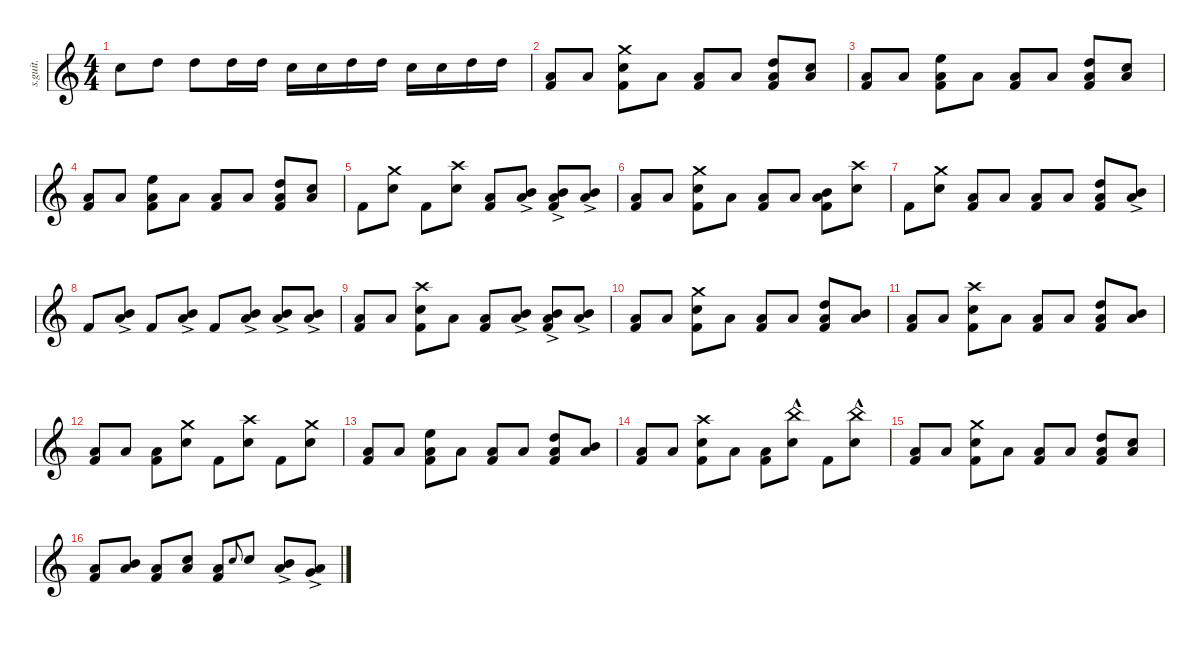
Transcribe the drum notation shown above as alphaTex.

\defaultSystemsLayout 4
\hideDynamics
\bracketExtendMode nobrackets
\track ("Lars Ulrich" "s.guit.") {instrument percussion}
\staff {score}
\articulation defaults
\ts (4 4)
\tempo (124 hide)
\clef g2
\ks c "Snare (hit) 2".8{lyrics (0 "") lyrics (1 "") lyrics (2 "") lyrics (3 "") lyrics (4 "") dy f} "High Tom (hit)".8{lyrics (0 "") lyrics (1 "") lyrics (2 "") lyrics (3 "") lyrics (4 "") dy ff} "High Tom (hit)".8{lyrics (0 "") lyrics (1 "") lyrics (2 "") lyrics (3 "") lyrics (4 "")} "High Tom (hit)".16{lyrics (0 "") lyrics (1 "") lyrics (2 "") lyrics (3 "") lyrics (4 "")} "High Tom (hit)".16{lyrics (0 "") lyrics (1 "") lyrics (2 "") lyrics (3 "") lyrics (4 "")} "Snare (hit) 2".16{lyrics (0 "") lyrics (1 "") lyrics (2 "") lyrics (3 "") lyrics (4 "")} "Snare (hit) 2".16{lyrics (0 "") lyrics (1 "") lyrics (2 "") lyrics (3 "") lyrics (4 "")} "High Tom (hit)".16{lyrics (0 "") lyrics (1 "") lyrics (2 "") lyrics (3 "") lyrics (4 "")} "High Tom (hit)".16{lyrics (0 "") lyrics (1 "") lyrics (2 "") lyrics (3 "") lyrics (4 "")} "Snare (hit) 2".16{lyrics (0 "") lyrics (1 "") lyrics (2 "") lyrics (3 "") lyrics (4 "")} "Snare (hit) 2".16{lyrics (0 "") lyrics (1 "") lyrics (2 "") lyrics (3 "") lyrics (4 "")} "High Tom (hit)".16{lyrics (0 "") lyrics (1 "") lyrics (2 "") lyrics (3 "") lyrics (4 "")} "High Tom (hit)".16{lyrics (0 "") lyrics (1 "") lyrics (2 "") lyrics (3 "") lyrics (4 "")}
|
("Low Floor Tom (hit)" "Kick (hit) 2").8{lyrics (0 "") lyrics (1 "") lyrics (2 "") lyrics (3 "") lyrics (4 "") dy f} "Low Floor Tom (hit)".8{lyrics (0 "") lyrics (1 "") lyrics (2 "") lyrics (3 "") lyrics (4 "") dy mf} ("Snare (hit) 2" "Crash medium (hit)" "Kick (hit) 2").8{lyrics (0 "") lyrics (1 "") lyrics (2 "") lyrics (3 "") lyrics (4 "") dy f} "Low Floor Tom (hit)".8{lyrics (0 "") lyrics (1 "") lyrics (2 "") lyrics (3 "") lyrics (4 "") dy mf} ("Low Floor Tom (hit)" "Kick (hit) 2").8{lyrics (0 "") lyrics (1 "") lyrics (2 "") lyrics (3 "") lyrics (4 "") dy f} "Low Floor Tom (hit)".8{lyrics (0 "") lyrics (1 "") lyrics (2 "") lyrics (3 "") lyrics (4 "") dy mf} ("Low Floor Tom (hit)" "Kick (hit) 2" "High Tom (hit)").8{lyrics (0 "") lyrics (1 "") lyrics (2 "") lyrics (3 "") lyrics (4 "") dy f} ("Snare (hit) 2" "Low Floor Tom (hit)").8{lyrics (0 "") lyrics (1 "") lyrics (2 "") lyrics (3 "") lyrics (4 "")} |
("Low Floor Tom (hit)" "Kick (hit) 2").8{lyrics (0 "") lyrics (1 "") lyrics (2 "") lyrics (3 "") lyrics (4 "")} "Low Floor Tom (hit)".8{lyrics (0 "") lyrics (1 "") lyrics (2 "") lyrics (3 "") lyrics (4 "") dy mf} ("Low Floor Tom (hit)" "Kick (hit) 2" "High Floor Tom (hit)").8{lyrics (0 "") lyrics (1 "") lyrics (2 "") lyrics (3 "") lyrics (4 "") dy f} "Low Floor Tom (hit)".8{lyrics (0 "") lyrics (1 "") lyrics (2 "") lyrics (3 "") lyrics (4 "") dy mf} ("Low Floor Tom (hit)" "Kick (hit) 2").8{lyrics (0 "") lyrics (1 "") lyrics (2 "") lyrics (3 "") lyrics (4 "") dy f} "Low Floor Tom (hit)".8{lyrics (0 "") lyrics (1 "") lyrics (2 "") lyrics (3 "") lyrics (4 "") dy mf} ("Low Floor Tom (hit)" "Kick (hit) 2" "High Tom (hit)").8{lyrics (0 "") lyrics (1 "") lyrics (2 "") lyrics (3 "") lyrics (4 "") dy f} ("Snare (hit) 2" "Low Floor Tom (hit)").8{lyrics (0 "") lyrics (1 "") lyrics (2 "") lyrics (3 "") lyrics (4 "")} |
("Low Floor Tom (hit)" "Kick (hit) 2").8{lyrics (0 "") lyrics (1 "") lyrics (2 "") lyrics (3 "") lyrics (4 "")} "Low Floor Tom (hit)".8{lyrics (0 "") lyrics (1 "") lyrics (2 "") lyrics (3 "") lyrics (4 "") dy mf} ("Low Floor Tom (hit)" "Kick (hit) 2" "High Floor Tom (hit)").8{lyrics (0 "") lyrics (1 "") lyrics (2 "") lyrics (3 "") lyrics (4 "") dy f} "Low Floor Tom (hit)".8{lyrics (0 "") lyrics (1 "") lyrics (2 "") lyrics (3 "") lyrics (4 "") dy mf} ("Low Floor Tom (hit)" "Kick (hit) 2").8{lyrics (0 "") lyrics (1 "") lyrics (2 "") lyrics (3 "") lyrics (4 "") dy f} "Low Floor Tom (hit)".8{lyrics (0 "") lyrics (1 "") lyrics (2 "") lyrics (3 "") lyrics (4 "") dy mf} ("Low Floor Tom (hit)" "Kick (hit) 2" "High Tom (hit)").8{lyrics (0 "") lyrics (1 "") lyrics (2 "") lyrics (3 "") lyrics (4 "") dy f} ("Snare (hit) 2" "Low Floor Tom (hit)").8{lyrics (0 "") lyrics (1 "") lyrics (2 "") lyrics (3 "") lyrics (4 "")} |
"Kick (hit) 2".8{lyrics (0 "") lyrics (1 "") lyrics (2 "") lyrics (3 "") lyrics (4 "")} ("Snare (hit) 2" "Crash medium (hit)").8{lyrics (0 "") lyrics (1 "") lyrics (2 "") lyrics (3 "") lyrics (4 "") dy mf} "Kick (hit) 2".8{lyrics (0 "") lyrics (1 "") lyrics (2 "") lyrics (3 "") lyrics (4 "") dy f} ("Snare (hit) 2" "Crash high (hit)").8{lyrics (0 "") lyrics (1 "") lyrics (2 "") lyrics (3 "") lyrics (4 "") dy mf} ("Kick (hit) 2" "Low Floor Tom (hit)").8{lyrics (0 "") lyrics (1 "") lyrics (2 "") lyrics (3 "") lyrics (4 "") dy f} ("Mid Tom (hit)"{ac} "Low Floor Tom (hit)"{ac}).8{lyrics (0 "") lyrics (1 "") lyrics (2 "") lyrics (3 "") lyrics (4 "") dy mf} ("Low Floor Tom (hit)"{ac} "Mid Tom (hit)"{ac} "Kick (hit) 2"{ac}).8{lyrics (0 "") lyrics (1 "") lyrics (2 "") lyrics (3 "") lyrics (4 "") dy f} ("Low Floor Tom (hit)"{ac} "Mid Tom (hit)"{ac}).8{lyrics (0 "") lyrics (1 "") lyrics (2 "") lyrics (3 "") lyrics (4 "")} |
("Low Floor Tom (hit)" "Kick (hit) 2").8{lyrics (0 "") lyrics (1 "") lyrics (2 "") lyrics (3 "") lyrics (4 "")} "Low Floor Tom (hit)".8{lyrics (0 "") lyrics (1 "") lyrics (2 "") lyrics (3 "") lyrics (4 "")} ("Snare (hit) 2" "Crash medium (hit)" "Kick (hit) 2").8{lyrics (0 "") lyrics (1 "") lyrics (2 "") lyrics (3 "") lyrics (4 "")} "Low Floor Tom (hit)".8{lyrics (0 "") lyrics (1 "") lyrics (2 "") lyrics (3 "") lyrics (4 "")} ("Low Floor Tom (hit)" "Kick (hit) 2").8{lyrics (0 "") lyrics (1 "") lyrics (2 "") lyrics (3 "") lyrics (4 "")} "Low Floor Tom (hit)".8{lyrics (0 "") lyrics (1 "") lyrics (2 "") lyrics (3 "") lyrics (4 "") dy ff} ("Low Floor Tom (hit)" "Kick (hit) 2" "Mid Tom (hit)").8{lyrics (0 "") lyrics (1 "") lyrics (2 "") lyrics (3 "") lyrics (4 "") dy f} ("Snare (hit) 2" "Crash high (hit)").8{lyrics (0 "") lyrics (1 "") lyrics (2 "") lyrics (3 "") lyrics (4 "") dy ff} |
"Kick (hit) 2".8{lyrics (0 "") lyrics (1 "") lyrics (2 "") lyrics (3 "") lyrics (4 "") dy f} ("Snare (hit) 2" "Crash medium (hit)").8{lyrics (0 "") lyrics (1 "") lyrics (2 "") lyrics (3 "") lyrics (4 "") dy mf} ("Low Floor Tom (hit)" "Kick (hit) 2").8{lyrics (0 "") lyrics (1 "") lyrics (2 "") lyrics (3 "") lyrics (4 "") dy f} "Low Floor Tom (hit)".8{lyrics (0 "") lyrics (1 "") lyrics (2 "") lyrics (3 "") lyrics (4 "") dy mf} ("Low Floor Tom (hit)" "Kick (hit) 2").8{lyrics (0 "") lyrics (1 "") lyrics (2 "") lyrics (3 "") lyrics (4 "") dy f} "Low Floor Tom (hit)".8{lyrics (0 "") lyrics (1 "") lyrics (2 "") lyrics (3 "") lyrics (4 "") dy mf} ("Low Floor Tom (hit)" "Kick (hit) 2" "High Tom (hit)").8{lyrics (0 "") lyrics (1 "") lyrics (2 "") lyrics (3 "") lyrics (4 "") dy f} ("Mid Tom (hit)"{ac} "Low Floor Tom (hit)").8{lyrics (0 "") lyrics (1 "") lyrics (2 "") lyrics (3 "") lyrics (4 "")} |
"Kick (hit) 2".8{lyrics (0 "") lyrics (1 "") lyrics (2 "") lyrics (3 "") lyrics (4 "")} ("Low Floor Tom (hit)" "Mid Tom (hit)"{ac}).8{lyrics (0 "") lyrics (1 "") lyrics (2 "") lyrics (3 "") lyrics (4 "")} "Kick (hit) 2".8{lyrics (0 "") lyrics (1 "") lyrics (2 "") lyrics (3 "") lyrics (4 "")} ("Low Floor Tom (hit)"{ac} "Mid Tom (hit)").8{lyrics (0 "") lyrics (1 "") lyrics (2 "") lyrics (3 "") lyrics (4 "") dy mf} "Kick (hit) 2".8{lyrics (0 "") lyrics (1 "") lyrics (2 "") lyrics (3 "") lyrics (4 "") dy f} ("Low Floor Tom (hit)"{ac} "Mid Tom (hit)").8{lyrics (0 "") lyrics (1 "") lyrics (2 "") lyrics (3 "") lyrics (4 "") dy mf} ("Low Floor Tom (hit)"{ac} "Mid Tom (hit)").8{lyrics (0 "") lyrics (1 "") lyrics (2 "") lyrics (3 "") lyrics (4 "") dy f} ("Low Floor Tom (hit)" "Mid Tom (hit)"{ac}).8{lyrics (0 "") lyrics (1 "") lyrics (2 "") lyrics (3 "") lyrics (4 "") dy ff} |
("Kick (hit) 2" "Low Floor Tom (hit)").8{lyrics (0 "") lyrics (1 "") lyrics (2 "") lyrics (3 "") lyrics (4 "") dy f} "Low Floor Tom (hit)".8{lyrics (0 "") lyrics (1 "") lyrics (2 "") lyrics (3 "") lyrics (4 "") dy ff} ("Snare (hit) 2" "Kick (hit) 2" "Crash high (hit)").8{lyrics (0 "") lyrics (1 "") lyrics (2 "") lyrics (3 "") lyrics (4 "") dy f} "Low Floor Tom (hit)".8{lyrics (0 "") lyrics (1 "") lyrics (2 "") lyrics (3 "") lyrics (4 "") dy ff} ("Low Floor Tom (hit)" "Kick (hit) 2").8{lyrics (0 "") lyrics (1 "") lyrics (2 "") lyrics (3 "") lyrics (4 "") dy f} ("Low Floor Tom (hit)"{ac} "Mid Tom (hit)"{ac}).8{lyrics (0 "") lyrics (1 "") lyrics (2 "") lyrics (3 "") lyrics (4 "") dy ff} ("Low Floor Tom (hit)"{ac} "Mid Tom (hit)"{ac} "Kick (hit) 2"{ac}).8{lyrics (0 "") lyrics (1 "") lyrics (2 "") lyrics (3 "") lyrics (4 "") dy f} ("Low Floor Tom (hit)"{ac} "Mid Tom (hit)"{ac}).8{lyrics (0 "") lyrics (1 "") lyrics (2 "") lyrics (3 "") lyrics (4 "") dy ff} |
("Low Floor Tom (hit)" "Kick (hit) 2").8{lyrics (0 "") lyrics (1 "") lyrics (2 "") lyrics (3 "") lyrics (4 "") dy f} "Low Floor Tom (hit)".8{lyrics (0 "") lyrics (1 "") lyrics (2 "") lyrics (3 "") lyrics (4 "") dy mf} ("Snare (hit) 2" "Kick (hit) 2" "Crash medium (hit)").8{lyrics (0 "") lyrics (1 "") lyrics (2 "") lyrics (3 "") lyrics (4 "") dy f} "Low Floor Tom (hit)".8{lyrics (0 "") lyrics (1 "") lyrics (2 "") lyrics (3 "") lyrics (4 "") dy mf} ("Low Floor Tom (hit)" "Kick (hit) 2").8{lyrics (0 "") lyrics (1 "") lyrics (2 "") lyrics (3 "") lyrics (4 "") dy f} "Low Floor Tom (hit)".8{lyrics (0 "") lyrics (1 "") lyrics (2 "") lyrics (3 "") lyrics (4 "") dy ff} ("Low Floor Tom (hit)" "Kick (hit) 2" "High Tom (hit)").8{lyrics (0 "") lyrics (1 "") lyrics (2 "") lyrics (3 "") lyrics (4 "") dy f} ("Low Floor Tom (hit)" "Mid Tom (hit)").8{lyrics (0 "") lyrics (1 "") lyrics (2 "") lyrics (3 "") lyrics (4 "") dy ff} |
("Low Floor Tom (hit)" "Kick (hit) 2").8{lyrics (0 "") lyrics (1 "") lyrics (2 "") lyrics (3 "") lyrics (4 "") dy f} "Low Floor Tom (hit)".8{lyrics (0 "") lyrics (1 "") lyrics (2 "") lyrics (3 "") lyrics (4 "") dy mf} ("Snare (hit) 2" "Kick (hit) 2" "Crash high (hit)").8{lyrics (0 "") lyrics (1 "") lyrics (2 "") lyrics (3 "") lyrics (4 "") dy f} "Low Floor Tom (hit)".8{lyrics (0 "") lyrics (1 "") lyrics (2 "") lyrics (3 "") lyrics (4 "") dy mf} ("Low Floor Tom (hit)" "Kick (hit) 2").8{lyrics (0 "") lyrics (1 "") lyrics (2 "") lyrics (3 "") lyrics (4 "") dy f} "Low Floor Tom (hit)".8{lyrics (0 "") lyrics (1 "") lyrics (2 "") lyrics (3 "") lyrics (4 "") dy mf} ("Low Floor Tom (hit)" "Kick (hit) 2" "High Tom (hit)").8{lyrics (0 "") lyrics (1 "") lyrics (2 "") lyrics (3 "") lyrics (4 "") dy f} ("Low Floor Tom (hit)" "Mid Tom (hit)").8{lyrics (0 "") lyrics (1 "") lyrics (2 "") lyrics (3 "") lyrics (4 "")} |
("Low Floor Tom (hit)" "Kick (hit) 2").8{lyrics (0 "") lyrics (1 "") lyrics (2 "") lyrics (3 "") lyrics (4 "")} "Low Floor Tom (hit)".8{lyrics (0 "") lyrics (1 "") lyrics (2 "") lyrics (3 "") lyrics (4 "")} ("Low Floor Tom (hit)" "Kick (hit) 2").8{lyrics (0 "") lyrics (1 "") lyrics (2 "") lyrics (3 "") lyrics (4 "")} ("Snare (hit) 2" "Crash medium (hit)").8{lyrics (0 "") lyrics (1 "") lyrics (2 "") lyrics (3 "") lyrics (4 "") dy mf} "Kick (hit) 2".8{lyrics (0 "") lyrics (1 "") lyrics (2 "") lyrics (3 "") lyrics (4 "") dy f} ("Snare (hit) 2" "Crash high (hit)").8{lyrics (0 "") lyrics (1 "") lyrics (2 "") lyrics (3 "") lyrics (4 "") dy mf} "Kick (hit) 2".8{lyrics (0 "") lyrics (1 "") lyrics (2 "") lyrics (3 "") lyrics (4 "") dy f} ("Snare (hit) 2" "Crash medium (hit)").8{lyrics (0 "") lyrics (1 "") lyrics (2 "") lyrics (3 "") lyrics (4 "") dy ff} |
("Low Floor Tom (hit)" "Kick (hit) 2").8{lyrics (0 "") lyrics (1 "") lyrics (2 "") lyrics (3 "") lyrics (4 "") dy f} "Low Floor Tom (hit)".8{lyrics (0 "") lyrics (1 "") lyrics (2 "") lyrics (3 "") lyrics (4 "") dy ff} ("Low Floor Tom (hit)" "Kick (hit) 2" "High Floor Tom (hit)").8{lyrics (0 "") lyrics (1 "") lyrics (2 "") lyrics (3 "") lyrics (4 "") dy f} "Low Floor Tom (hit)".8{lyrics (0 "") lyrics (1 "") lyrics (2 "") lyrics (3 "") lyrics (4 "") dy ff} ("Low Floor Tom (hit)" "Kick (hit) 2").8{lyrics (0 "") lyrics (1 "") lyrics (2 "") lyrics (3 "") lyrics (4 "") dy f} "Low Floor Tom (hit)".8{lyrics (0 "") lyrics (1 "") lyrics (2 "") lyrics (3 "") lyrics (4 "") dy ff} ("Low Floor Tom (hit)" "Kick (hit) 2" "High Tom (hit)").8{lyrics (0 "") lyrics (1 "") lyrics (2 "") lyrics (3 "") lyrics (4 "") dy f} ("Mid Tom (hit)" "Low Floor Tom (hit)").8{lyrics (0 "") lyrics (1 "") lyrics (2 "") lyrics (3 "") lyrics (4 "") dy ff} |
("Low Floor Tom (hit)" "Kick (hit) 2").8{lyrics (0 "") lyrics (1 "") lyrics (2 "") lyrics (3 "") lyrics (4 "") dy f} "Low Floor Tom (hit)".8{lyrics (0 "") lyrics (1 "") lyrics (2 "") lyrics (3 "") lyrics (4 "") dy mf} ("Snare (hit) 2" "Crash high (hit)" "Kick (hit) 2").8{lyrics (0 "") lyrics (1 "") lyrics (2 "") lyrics (3 "") lyrics (4 "") dy f} "Low Floor Tom (hit)".8{lyrics (0 "") lyrics (1 "") lyrics (2 "") lyrics (3 "") lyrics (4 "") dy mf} ("Low Floor Tom (hit)" "Kick (hit) 2").8{lyrics (0 "") lyrics (1 "") lyrics (2 "") lyrics (3 "") lyrics (4 "") dy f} ("Snare (hit) 2" "China (hit)"{hac}).8{lyrics (0 "") lyrics (1 "") lyrics (2 "") lyrics (3 "") lyrics (4 "") dy ff} "Kick (hit) 2".8{lyrics (0 "") lyrics (1 "") lyrics (2 "") lyrics (3 "") lyrics (4 "") dy f} ("Snare (hit) 2" "China (hit)"{hac}).8{lyrics (0 "") lyrics (1 "") lyrics (2 "") lyrics (3 "") lyrics (4 "") dy ff} |
("Low Floor Tom (hit)" "Kick (hit) 2").8{lyrics (0 "") lyrics (1 "") lyrics (2 "") lyrics (3 "") lyrics (4 "")} "Low Floor Tom (hit)".8{lyrics (0 "") lyrics (1 "") lyrics (2 "") lyrics (3 "") lyrics (4 "")} ("Snare (hit) 2" "Crash medium (hit)" "Kick (hit) 2").8{lyrics (0 "") lyrics (1 "") lyrics (2 "") lyrics (3 "") lyrics (4 "")} "Low Floor Tom (hit)".8{lyrics (0 "") lyrics (1 "") lyrics (2 "") lyrics (3 "") lyrics (4 "")} ("Low Floor Tom (hit)" "Kick (hit) 2").8{lyrics (0 "") lyrics (1 "") lyrics (2 "") lyrics (3 "") lyrics (4 "")} "Low Floor Tom (hit)".8{lyrics (0 "") lyrics (1 "") lyrics (2 "") lyrics (3 "") lyrics (4 "")} ("Low Floor Tom (hit)" "Kick (hit) 2" "High Tom (hit)").8{lyrics (0 "") lyrics (1 "") lyrics (2 "") lyrics (3 "") lyrics (4 "") dy f} ("Low Floor Tom (hit)" "Snare (hit) 2").8{lyrics (0 "") lyrics (1 "") lyrics (2 "") lyrics (3 "") lyrics (4 "") dy ff} |
("Low Floor Tom (hit)" "Kick (hit) 2").8{lyrics (0 "") lyrics (1 "") lyrics (2 "") lyrics (3 "") lyrics (4 "")} ("Mid Tom (hit)" "Low Floor Tom (hit)").8{lyrics (0 "") lyrics (1 "") lyrics (2 "") lyrics (3 "") lyrics (4 "")} ("Low Floor Tom (hit)" "Kick (hit) 2").8{lyrics (0 "") lyrics (1 "") lyrics (2 "") lyrics (3 "") lyrics (4 "")} ("Low Floor Tom (hit)" "Snare (hit) 2").8{lyrics (0 "") lyrics (1 "") lyrics (2 "") lyrics (3 "") lyrics (4 "") dy mf} ("Low Floor Tom (hit)" "Kick (hit) 2").8{lyrics (0 "") lyrics (1 "") lyrics (2 "") lyrics (3 "") lyrics (4 "") dy f} "Snare (hit) 2".8{lyrics (0 "") lyrics (1 "") lyrics (2 "") lyrics (3 "") lyrics (4 "") gr onbeat dy mf} "Snare (hit) 2".8{lyrics (0 "") lyrics (1 "") lyrics (2 "") lyrics (3 "") lyrics (4 "") dy f} ("Mid Tom (hit)"{ac} "Low Floor Tom (hit)"{ac}).8{lyrics (0 "") lyrics (1 "") lyrics (2 "") lyrics (3 "") lyrics (4 "") dy ff} ("Low Floor Tom (hit)"{ac} "Very Low Tom (hit)").8{lyrics (0 "") lyrics (1 "") lyrics (2 "") lyrics (3 "") lyrics (4 "")}
